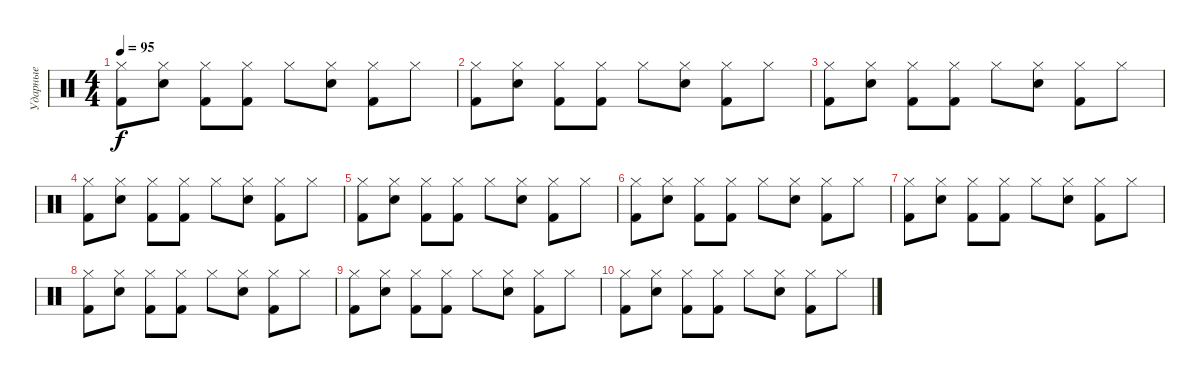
\track ("Ударные" "Ударные") {instrument percussion}
\staff {score}
\articulation defaults
\ts (4 4)
\tempo 95
\clef neutral
\ks c
("Kick (hit) 2" "Hi-Hat (closed)").8{dy f} ("Electric Snare (hit)" "Hi-Hat (closed)").8 ("Kick (hit) 2" "Hi-Hat (closed)").8 ("Kick (hit) 2" "Hi-Hat (closed)").8 "Hi-Hat (closed)".8 ("Electric Snare (hit)" "Hi-Hat (closed)").8 ("Kick (hit) 2" "Hi-Hat (closed)").8 "Hi-Hat (closed)".8 |
("Kick (hit) 2" "Hi-Hat (closed)").8 ("Electric Snare (hit)" "Hi-Hat (closed)").8 ("Kick (hit) 2" "Hi-Hat (closed)").8 ("Kick (hit) 2" "Hi-Hat (closed)").8 "Hi-Hat (closed)".8 ("Electric Snare (hit)" "Hi-Hat (closed)").8 ("Kick (hit) 2" "Hi-Hat (closed)").8 "Hi-Hat (closed)".8 |
("Kick (hit) 2" "Hi-Hat (closed)").8 ("Electric Snare (hit)" "Hi-Hat (closed)").8 ("Kick (hit) 2" "Hi-Hat (closed)").8 ("Kick (hit) 2" "Hi-Hat (closed)").8 "Hi-Hat (closed)".8 ("Electric Snare (hit)" "Hi-Hat (closed)").8 ("Kick (hit) 2" "Hi-Hat (closed)").8 "Hi-Hat (closed)".8 |
("Kick (hit) 2" "Hi-Hat (closed)").8 ("Electric Snare (hit)" "Hi-Hat (closed)").8 ("Kick (hit) 2" "Hi-Hat (closed)").8 ("Kick (hit) 2" "Hi-Hat (closed)").8 "Hi-Hat (closed)".8 ("Electric Snare (hit)" "Hi-Hat (closed)").8 ("Kick (hit) 2" "Hi-Hat (closed)").8 "Hi-Hat (closed)".8 |
("Kick (hit) 2" "Hi-Hat (closed)").8 ("Electric Snare (hit)" "Hi-Hat (closed)").8 ("Kick (hit) 2" "Hi-Hat (closed)").8 ("Kick (hit) 2" "Hi-Hat (closed)").8 "Hi-Hat (closed)".8 ("Electric Snare (hit)" "Hi-Hat (closed)").8 ("Kick (hit) 2" "Hi-Hat (closed)").8 "Hi-Hat (closed)".8 |
("Kick (hit) 2" "Hi-Hat (closed)").8 ("Electric Snare (hit)" "Hi-Hat (closed)").8 ("Kick (hit) 2" "Hi-Hat (closed)").8 ("Kick (hit) 2" "Hi-Hat (closed)").8 "Hi-Hat (closed)".8 ("Electric Snare (hit)" "Hi-Hat (closed)").8 ("Kick (hit) 2" "Hi-Hat (closed)").8 "Hi-Hat (closed)".8 |
("Kick (hit) 2" "Hi-Hat (closed)").8 ("Electric Snare (hit)" "Hi-Hat (closed)").8 ("Kick (hit) 2" "Hi-Hat (closed)").8 ("Kick (hit) 2" "Hi-Hat (closed)").8 "Hi-Hat (closed)".8 ("Electric Snare (hit)" "Hi-Hat (closed)").8 ("Kick (hit) 2" "Hi-Hat (closed)").8 "Hi-Hat (closed)".8 |
("Kick (hit) 2" "Hi-Hat (closed)").8 ("Electric Snare (hit)" "Hi-Hat (closed)").8 ("Kick (hit) 2" "Hi-Hat (closed)").8 ("Kick (hit) 2" "Hi-Hat (closed)").8 "Hi-Hat (closed)".8 ("Electric Snare (hit)" "Hi-Hat (closed)").8 ("Kick (hit) 2" "Hi-Hat (closed)").8 "Hi-Hat (closed)".8 |
("Kick (hit) 2" "Hi-Hat (closed)").8 ("Electric Snare (hit)" "Hi-Hat (closed)").8 ("Kick (hit) 2" "Hi-Hat (closed)").8 ("Kick (hit) 2" "Hi-Hat (closed)").8 "Hi-Hat (closed)".8 ("Electric Snare (hit)" "Hi-Hat (closed)").8 ("Kick (hit) 2" "Hi-Hat (closed)").8 "Hi-Hat (closed)".8 |
("Kick (hit) 2" "Hi-Hat (closed)").8 ("Electric Snare (hit)" "Hi-Hat (closed)").8 ("Kick (hit) 2" "Hi-Hat (closed)").8 ("Kick (hit) 2" "Hi-Hat (closed)").8 "Hi-Hat (closed)".8 ("Electric Snare (hit)" "Hi-Hat (closed)").8 ("Kick (hit) 2" "Hi-Hat (closed)").8 "Hi-Hat (closed)".8
